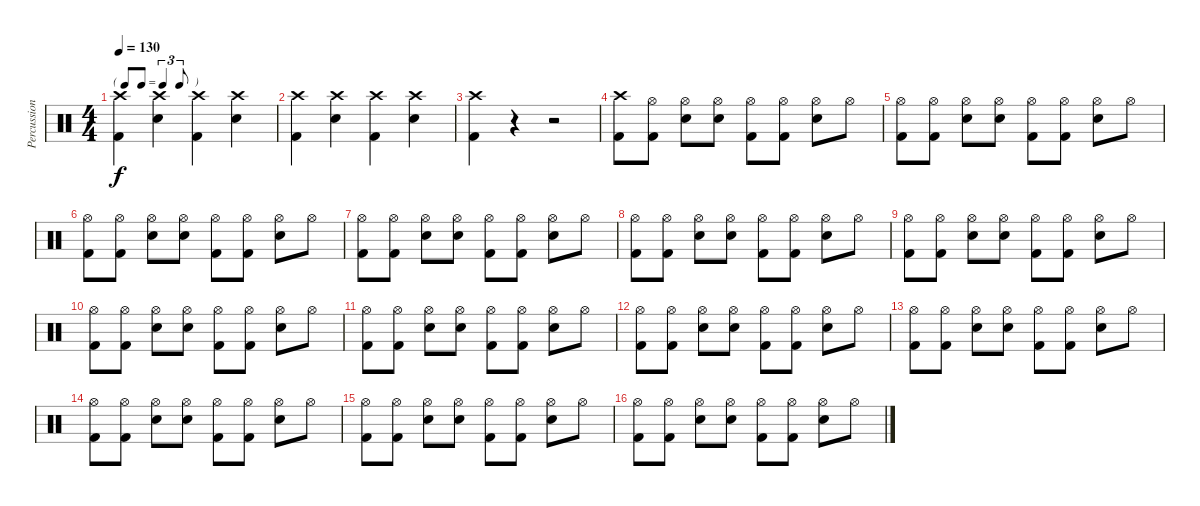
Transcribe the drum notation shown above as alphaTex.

\track ("Percussions" "Percussion") {instrument percussion}
\staff {score}
\articulation defaults
\ts (4 4)
\tf triplet8th
\tempo 130
\clef neutral
\ks c
("Crash high (hit)" "Kick (hit) 2").4{dy f} ("Crash high (hit)" "Electric Snare (hit)").4 ("Crash high (hit)" "Kick (hit) 2").4 ("Crash high (hit)" "Electric Snare (hit)").4 |
("Crash high (hit)" "Kick (hit) 2").4 ("Crash high (hit)" "Electric Snare (hit)").4 ("Crash high (hit)" "Kick (hit) 2").4 ("Crash high (hit)" "Electric Snare (hit)").4 |
("Crash high (hit)" "Kick (hit) 2").4 r.4 r.2 |
("Crash high (hit)" "Kick (hit) 2").8 ("Hi-Hat (open)" "Kick (hit) 2").8 ("Hi-Hat (open)" "Electric Snare (hit)").8 ("Hi-Hat (open)" "Electric Snare (hit)").8 ("Hi-Hat (open)" "Kick (hit) 2").8 ("Hi-Hat (open)" "Kick (hit) 2").8 ("Hi-Hat (open)" "Electric Snare (hit)").8 "Hi-Hat (open)".8 |
("Hi-Hat (open)" "Kick (hit) 2").8 ("Hi-Hat (open)" "Kick (hit) 2").8 ("Hi-Hat (open)" "Electric Snare (hit)").8 ("Hi-Hat (open)" "Electric Snare (hit)").8 ("Hi-Hat (open)" "Kick (hit) 2").8 ("Hi-Hat (open)" "Kick (hit) 2").8 ("Hi-Hat (open)" "Electric Snare (hit)").8 "Hi-Hat (open)".8 |
("Hi-Hat (open)" "Kick (hit) 2").8 ("Hi-Hat (open)" "Kick (hit) 2").8 ("Hi-Hat (open)" "Electric Snare (hit)").8 ("Hi-Hat (open)" "Electric Snare (hit)").8 ("Hi-Hat (open)" "Kick (hit) 2").8 ("Hi-Hat (open)" "Kick (hit) 2").8 ("Hi-Hat (open)" "Electric Snare (hit)").8 "Hi-Hat (open)".8 |
("Hi-Hat (open)" "Kick (hit) 2").8 ("Hi-Hat (open)" "Kick (hit) 2").8 ("Hi-Hat (open)" "Electric Snare (hit)").8 ("Hi-Hat (open)" "Electric Snare (hit)").8 ("Hi-Hat (open)" "Kick (hit) 2").8 ("Hi-Hat (open)" "Kick (hit) 2").8 ("Hi-Hat (open)" "Electric Snare (hit)").8 "Hi-Hat (open)".8 |
("Hi-Hat (open)" "Kick (hit) 2").8 ("Hi-Hat (open)" "Kick (hit) 2").8 ("Hi-Hat (open)" "Electric Snare (hit)").8 ("Hi-Hat (open)" "Electric Snare (hit)").8 ("Hi-Hat (open)" "Kick (hit) 2").8 ("Hi-Hat (open)" "Kick (hit) 2").8 ("Hi-Hat (open)" "Electric Snare (hit)").8 "Hi-Hat (open)".8 |
("Hi-Hat (open)" "Kick (hit) 2").8 ("Hi-Hat (open)" "Kick (hit) 2").8 ("Hi-Hat (open)" "Electric Snare (hit)").8 ("Hi-Hat (open)" "Electric Snare (hit)").8 ("Hi-Hat (open)" "Kick (hit) 2").8 ("Hi-Hat (open)" "Kick (hit) 2").8 ("Hi-Hat (open)" "Electric Snare (hit)").8 "Hi-Hat (open)".8 |
("Hi-Hat (open)" "Kick (hit) 2").8 ("Hi-Hat (open)" "Kick (hit) 2").8 ("Hi-Hat (open)" "Electric Snare (hit)").8 ("Hi-Hat (open)" "Electric Snare (hit)").8 ("Hi-Hat (open)" "Kick (hit) 2").8 ("Hi-Hat (open)" "Kick (hit) 2").8 ("Hi-Hat (open)" "Electric Snare (hit)").8 "Hi-Hat (open)".8 |
("Hi-Hat (open)" "Kick (hit) 2").8 ("Hi-Hat (open)" "Kick (hit) 2").8 ("Hi-Hat (open)" "Electric Snare (hit)").8 ("Hi-Hat (open)" "Electric Snare (hit)").8 ("Hi-Hat (open)" "Kick (hit) 2").8 ("Hi-Hat (open)" "Kick (hit) 2").8 ("Hi-Hat (open)" "Electric Snare (hit)").8 "Hi-Hat (open)".8 |
("Hi-Hat (open)" "Kick (hit) 2").8 ("Hi-Hat (open)" "Kick (hit) 2").8 ("Hi-Hat (open)" "Electric Snare (hit)").8 ("Hi-Hat (open)" "Electric Snare (hit)").8 ("Hi-Hat (open)" "Kick (hit) 2").8 ("Hi-Hat (open)" "Kick (hit) 2").8 ("Hi-Hat (open)" "Electric Snare (hit)").8 "Hi-Hat (open)".8 |
("Hi-Hat (open)" "Kick (hit) 2").8 ("Hi-Hat (open)" "Kick (hit) 2").8 ("Hi-Hat (open)" "Electric Snare (hit)").8 ("Hi-Hat (open)" "Electric Snare (hit)").8 ("Hi-Hat (open)" "Kick (hit) 2").8 ("Hi-Hat (open)" "Kick (hit) 2").8 ("Hi-Hat (open)" "Electric Snare (hit)").8 "Hi-Hat (open)".8 |
("Hi-Hat (open)" "Kick (hit) 2").8 ("Hi-Hat (open)" "Kick (hit) 2").8 ("Hi-Hat (open)" "Electric Snare (hit)").8 ("Hi-Hat (open)" "Electric Snare (hit)").8 ("Hi-Hat (open)" "Kick (hit) 2").8 ("Hi-Hat (open)" "Kick (hit) 2").8 ("Hi-Hat (open)" "Electric Snare (hit)").8 "Hi-Hat (open)".8 |
("Hi-Hat (open)" "Kick (hit) 2").8 ("Hi-Hat (open)" "Kick (hit) 2").8 ("Hi-Hat (open)" "Electric Snare (hit)").8 ("Hi-Hat (open)" "Electric Snare (hit)").8 ("Hi-Hat (open)" "Kick (hit) 2").8 ("Hi-Hat (open)" "Kick (hit) 2").8 ("Hi-Hat (open)" "Electric Snare (hit)").8 "Hi-Hat (open)".8 |
("Hi-Hat (open)" "Kick (hit) 2").8 ("Hi-Hat (open)" "Kick (hit) 2").8 ("Hi-Hat (open)" "Electric Snare (hit)").8 ("Hi-Hat (open)" "Electric Snare (hit)").8 ("Hi-Hat (open)" "Kick (hit) 2").8 ("Hi-Hat (open)" "Kick (hit) 2").8 ("Hi-Hat (open)" "Electric Snare (hit)").8 "Hi-Hat (open)".8
